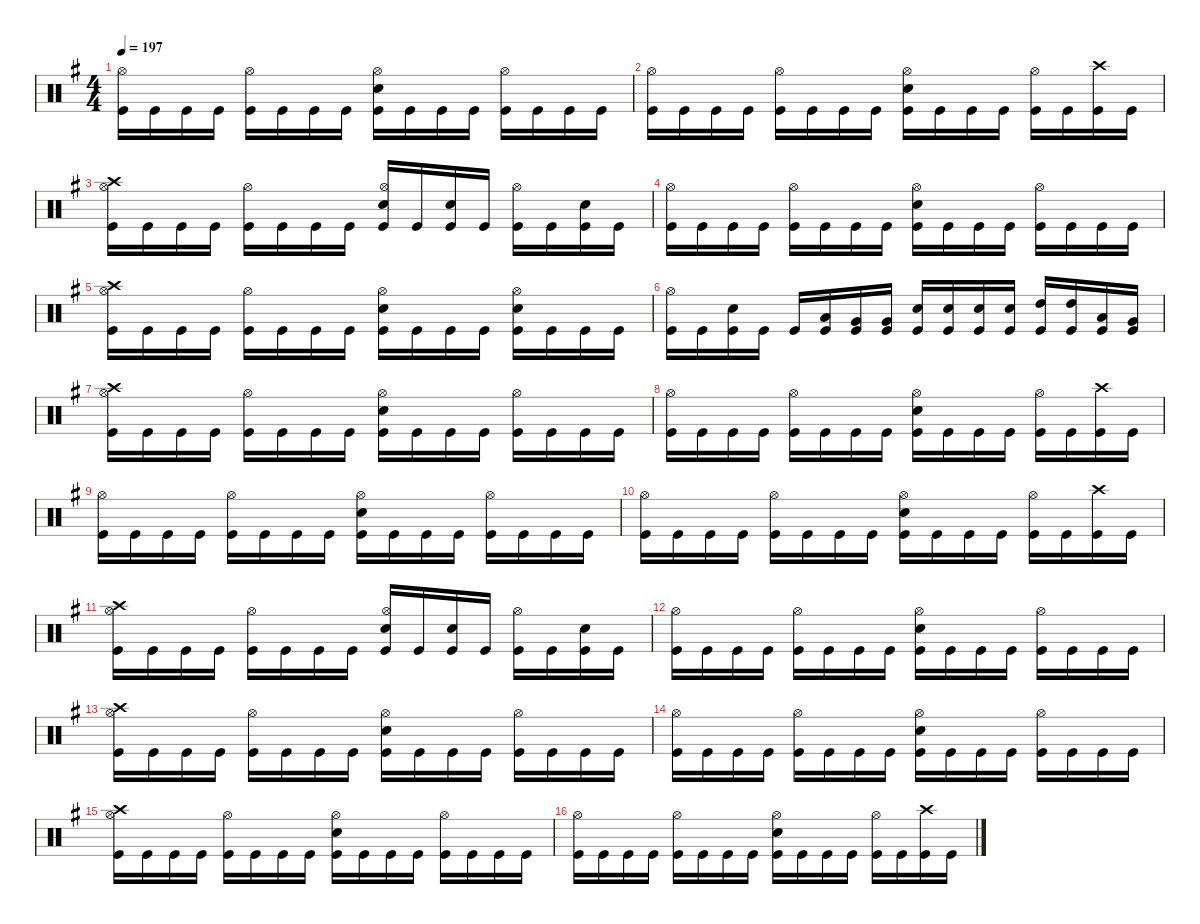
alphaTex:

\defaultSystemsLayout 4
\hideDynamics
\bracketExtendMode nobrackets
\singleTrackTrackNamePolicy hidden
\multiTrackTrackNamePolicy hidden
\firstSystemTrackNameMode fullname
\firstSystemTrackNameOrientation horizontal
\otherSystemsTrackNameOrientation horizontal
\track ("Drums" "drm.") {defaultSystemsLayout 4 instrument percussion}
\staff {score}
\articulation defaults
\ts (4 4)
\tempo 197
\clef neutral
\ks eminor
("Hi-Hat (open)"{acc forcenatural} "Kick (hit)"{acc forcenatural}).16{dy f beam Down} "Kick (hit)"{acc forcenatural}.16{beam Down} "Kick (hit)"{acc forcenatural}.16{beam Down} "Kick (hit)"{acc forcenatural}.16{beam Down} ("Hi-Hat (open)"{acc forcenatural} "Kick (hit)"{acc forcenatural}).16{beam Down} "Kick (hit)"{acc forcenatural}.16{beam Down} "Kick (hit)"{acc forcenatural}.16{beam Down} "Kick (hit)"{acc forcenatural}.16{beam Down} ("Hi-Hat (open)"{acc forcenatural} "Snare (hit) 2"{acc forcenatural} "Kick (hit)"{acc forcenatural}).16{beam Down} "Kick (hit)"{acc forcenatural}.16{beam Down} "Kick (hit)"{acc forcenatural}.16{beam Down} "Kick (hit)"{acc forcenatural}.16{beam Down} ("Hi-Hat (open)"{acc forcenatural} "Kick (hit)"{acc forcenatural}).16{beam Down} "Kick (hit)"{acc forcenatural}.16{beam Down} "Kick (hit)"{acc forcenatural}.16{beam Down} "Kick (hit)"{acc forcenatural}.16{beam Down} |
("Hi-Hat (open)"{acc forcenatural} "Kick (hit)"{acc forcenatural}).16{beam Down} "Kick (hit)"{acc forcenatural}.16{beam Down} "Kick (hit)"{acc forcenatural}.16{beam Down} "Kick (hit)"{acc forcenatural}.16{beam Down} ("Hi-Hat (open)"{acc forcenatural} "Kick (hit)"{acc forcenatural}).16{beam Down} "Kick (hit)"{acc forcenatural}.16{beam Down} "Kick (hit)"{acc forcenatural}.16{beam Down} "Kick (hit)"{acc forcenatural}.16{beam Down} ("Hi-Hat (open)"{acc forcenatural} "Snare (hit) 2"{acc forcenatural} "Kick (hit)"{acc forcenatural}).16{beam Down} "Kick (hit)"{acc forcenatural}.16{beam Down} "Kick (hit)"{acc forcenatural}.16{beam Down} "Kick (hit)"{acc forcenatural}.16{beam Down} ("Hi-Hat (open)"{acc forcenatural} "Kick (hit)"{acc forcenatural}).16{beam Down} "Kick (hit)"{acc forcenatural}.16{beam Down} ("Crash high (hit)"{acc forcenatural} "Kick (hit)"{acc forcenatural}).16{beam Down} "Kick (hit)"{acc forcenatural}.16{beam Down} |
("Crash high (hit)"{acc forcenatural} "Hi-Hat (open)"{acc forcenatural} "Kick (hit)"{acc forcenatural}).16{beam Down} "Kick (hit)"{acc forcenatural}.16{beam Down} "Kick (hit)"{acc forcenatural}.16{beam Down} "Kick (hit)"{acc forcenatural}.16{beam Down} ("Hi-Hat (open)"{acc forcenatural} "Kick (hit)"{acc forcenatural}).16{beam Down} "Kick (hit)"{acc forcenatural}.16{beam Down} "Kick (hit)"{acc forcenatural}.16{beam Down} "Kick (hit)"{acc forcenatural}.16{beam Down} ("Hi-Hat (open)"{acc forcenatural} "Snare (hit) 2"{acc forcenatural} "Kick (hit)"{acc forcenatural}).16{beam Up} "Kick (hit)"{acc forcenatural}.16{beam Up} ("Snare (hit) 2"{acc forcenatural} "Kick (hit)"{acc forcenatural}).16{beam Up} "Kick (hit)"{acc forcenatural}.16{beam Up} ("Hi-Hat (open)"{acc forcenatural} "Kick (hit)"{acc forcenatural}).16{beam Down} "Kick (hit)"{acc forcenatural}.16{beam Down} ("Snare (hit) 2"{acc forcenatural} "Kick (hit)"{acc forcenatural}).16{beam Down} "Kick (hit)"{acc forcenatural}.16{beam Down} |
("Hi-Hat (open)"{acc forcenatural} "Kick (hit)"{acc forcenatural}).16{beam Down} "Kick (hit)"{acc forcenatural}.16{beam Down} "Kick (hit)"{acc forcenatural}.16{beam Down} "Kick (hit)"{acc forcenatural}.16{beam Down} ("Hi-Hat (open)"{acc forcenatural} "Kick (hit)"{acc forcenatural}).16{beam Down} "Kick (hit)"{acc forcenatural}.16{beam Down} "Kick (hit)"{acc forcenatural}.16{beam Down} "Kick (hit)"{acc forcenatural}.16{beam Down} ("Hi-Hat (open)"{acc forcenatural} "Snare (hit) 2"{acc forcenatural} "Kick (hit)"{acc forcenatural}).16{beam Down} "Kick (hit)"{acc forcenatural}.16{beam Down} "Kick (hit)"{acc forcenatural}.16{beam Down} "Kick (hit)"{acc forcenatural}.16{beam Down} ("Hi-Hat (open)"{acc forcenatural} "Kick (hit)"{acc forcenatural}).16{beam Down} "Kick (hit)"{acc forcenatural}.16{beam Down} "Kick (hit)"{acc forcenatural}.16{beam Down} "Kick (hit)"{acc forcenatural}.16{beam Down} |
("Crash high (hit)"{acc forcenatural} "Hi-Hat (open)"{acc forcenatural} "Kick (hit)"{acc forcenatural}).16{beam Down} "Kick (hit)"{acc forcenatural}.16{beam Down} "Kick (hit)"{acc forcenatural}.16{beam Down} "Kick (hit)"{acc forcenatural}.16{beam Down} ("Hi-Hat (open)"{acc forcenatural} "Kick (hit)"{acc forcenatural}).16{beam Down} "Kick (hit)"{acc forcenatural}.16{beam Down} "Kick (hit)"{acc forcenatural}.16{beam Down} "Kick (hit)"{acc forcenatural}.16{beam Down} ("Hi-Hat (open)"{acc forcenatural} "Snare (hit) 2"{acc forcenatural} "Kick (hit)"{acc forcenatural}).16{beam Down} "Kick (hit)"{acc forcenatural}.16{beam Down} "Kick (hit)"{acc forcenatural}.16{beam Down} "Kick (hit)"{acc forcenatural}.16{beam Down} ("Hi-Hat (open)"{acc forcenatural} "Snare (hit) 2"{acc forcenatural} "Kick (hit)"{acc forcenatural}).16{beam Down} "Kick (hit)"{acc forcenatural}.16{beam Down} "Kick (hit)"{acc forcenatural}.16{beam Down} "Kick (hit)"{acc forcenatural}.16{beam Down} |
("Hi-Hat (open)"{acc forcenatural} "Kick (hit)"{acc forcenatural}).16{beam Down} "Kick (hit)"{acc forcenatural}.16{beam Down} ("Snare (hit) 2"{acc forcenatural} "Kick (hit)"{acc forcenatural}).16{beam Down} "Kick (hit)"{acc forcenatural}.16{beam Down} "Kick (hit)"{acc forcenatural}.16{beam Up} ("Low Tom (hit)"{acc forcenatural} "Kick (hit)"{acc forcenatural}).16{beam Up} ("Very Low Tom (hit)"{acc forcenatural} "Kick (hit)"{acc forcenatural}).16{beam Up} ("Very Low Tom (hit)"{acc forcenatural} "Kick (hit)"{acc forcenatural}).16{beam Up} ("Snare (hit) 2"{acc forcenatural} "Kick (hit)"{acc forcenatural}).16{beam Up} ("Snare (hit) 2"{acc forcenatural} "Kick (hit)"{acc forcenatural}).16{beam Up} ("Snare (hit) 2"{acc forcenatural} "Kick (hit)"{acc forcenatural}).16{beam Up} ("Snare (hit) 2"{acc forcenatural} "Kick (hit)"{acc forcenatural}).16{beam Up} ("High Tom (hit)"{acc forcenatural} "Kick (hit)"{acc forcenatural}).16{beam Up} ("High Tom (hit)"{acc forcenatural} "Kick (hit)"{acc forcenatural}).16{beam Up} ("Low Tom (hit)"{acc forcenatural} "Kick (hit)"{acc forcenatural}).16{beam Up} ("Very Low Tom (hit)"{acc forcenatural} "Kick (hit)"{acc forcenatural}).16{beam Up} |
("Crash high (hit)"{acc forcenatural} "Hi-Hat (open)"{acc forcenatural} "Kick (hit)"{acc forcenatural}).16{beam Down} "Kick (hit)"{acc forcenatural}.16{beam Down} "Kick (hit)"{acc forcenatural}.16{beam Down} "Kick (hit)"{acc forcenatural}.16{beam Down} ("Hi-Hat (open)"{acc forcenatural} "Kick (hit)"{acc forcenatural}).16{beam Down} "Kick (hit)"{acc forcenatural}.16{beam Down} "Kick (hit)"{acc forcenatural}.16{beam Down} "Kick (hit)"{acc forcenatural}.16{beam Down} ("Hi-Hat (open)"{acc forcenatural} "Snare (hit) 2"{acc forcenatural} "Kick (hit)"{acc forcenatural}).16{beam Down} "Kick (hit)"{acc forcenatural}.16{beam Down} "Kick (hit)"{acc forcenatural}.16{beam Down} "Kick (hit)"{acc forcenatural}.16{beam Down} ("Hi-Hat (open)"{acc forcenatural} "Kick (hit)"{acc forcenatural}).16{beam Down} "Kick (hit)"{acc forcenatural}.16{beam Down} "Kick (hit)"{acc forcenatural}.16{beam Down} "Kick (hit)"{acc forcenatural}.16{beam Down} |
("Hi-Hat (open)"{acc forcenatural} "Kick (hit)"{acc forcenatural}).16{beam Down} "Kick (hit)"{acc forcenatural}.16{beam Down} "Kick (hit)"{acc forcenatural}.16{beam Down} "Kick (hit)"{acc forcenatural}.16{beam Down} ("Hi-Hat (open)"{acc forcenatural} "Kick (hit)"{acc forcenatural}).16{beam Down} "Kick (hit)"{acc forcenatural}.16{beam Down} "Kick (hit)"{acc forcenatural}.16{beam Down} "Kick (hit)"{acc forcenatural}.16{beam Down} ("Hi-Hat (open)"{acc forcenatural} "Snare (hit) 2"{acc forcenatural} "Kick (hit)"{acc forcenatural}).16{beam Down} "Kick (hit)"{acc forcenatural}.16{beam Down} "Kick (hit)"{acc forcenatural}.16{beam Down} "Kick (hit)"{acc forcenatural}.16{beam Down} ("Hi-Hat (open)"{acc forcenatural} "Kick (hit)"{acc forcenatural}).16{beam Down} "Kick (hit)"{acc forcenatural}.16{beam Down} ("Crash high (hit)"{acc forcenatural} "Kick (hit)"{acc forcenatural}).16{beam Down} "Kick (hit)"{acc forcenatural}.16{beam Down} |
("Hi-Hat (open)"{acc forcenatural} "Kick (hit)"{acc forcenatural}).16{beam Down} "Kick (hit)"{acc forcenatural}.16{beam Down} "Kick (hit)"{acc forcenatural}.16{beam Down} "Kick (hit)"{acc forcenatural}.16{beam Down} ("Hi-Hat (open)"{acc forcenatural} "Kick (hit)"{acc forcenatural}).16{beam Down} "Kick (hit)"{acc forcenatural}.16{beam Down} "Kick (hit)"{acc forcenatural}.16{beam Down} "Kick (hit)"{acc forcenatural}.16{beam Down} ("Hi-Hat (open)"{acc forcenatural} "Snare (hit) 2"{acc forcenatural} "Kick (hit)"{acc forcenatural}).16{beam Down} "Kick (hit)"{acc forcenatural}.16{beam Down} "Kick (hit)"{acc forcenatural}.16{beam Down} "Kick (hit)"{acc forcenatural}.16{beam Down} ("Hi-Hat (open)"{acc forcenatural} "Kick (hit)"{acc forcenatural}).16{beam Down} "Kick (hit)"{acc forcenatural}.16{beam Down} "Kick (hit)"{acc forcenatural}.16{beam Down} "Kick (hit)"{acc forcenatural}.16{beam Down} |
("Hi-Hat (open)"{acc forcenatural} "Kick (hit)"{acc forcenatural}).16{beam Down} "Kick (hit)"{acc forcenatural}.16{beam Down} "Kick (hit)"{acc forcenatural}.16{beam Down} "Kick (hit)"{acc forcenatural}.16{beam Down} ("Hi-Hat (open)"{acc forcenatural} "Kick (hit)"{acc forcenatural}).16{beam Down} "Kick (hit)"{acc forcenatural}.16{beam Down} "Kick (hit)"{acc forcenatural}.16{beam Down} "Kick (hit)"{acc forcenatural}.16{beam Down} ("Hi-Hat (open)"{acc forcenatural} "Snare (hit) 2"{acc forcenatural} "Kick (hit)"{acc forcenatural}).16{beam Down} "Kick (hit)"{acc forcenatural}.16{beam Down} "Kick (hit)"{acc forcenatural}.16{beam Down} "Kick (hit)"{acc forcenatural}.16{beam Down} ("Hi-Hat (open)"{acc forcenatural} "Kick (hit)"{acc forcenatural}).16{beam Down} "Kick (hit)"{acc forcenatural}.16{beam Down} ("Crash high (hit)"{acc forcenatural} "Kick (hit)"{acc forcenatural}).16{beam Down} "Kick (hit)"{acc forcenatural}.16{beam Down} |
("Crash high (hit)"{acc forcenatural} "Hi-Hat (open)"{acc forcenatural} "Kick (hit)"{acc forcenatural}).16{beam Down} "Kick (hit)"{acc forcenatural}.16{beam Down} "Kick (hit)"{acc forcenatural}.16{beam Down} "Kick (hit)"{acc forcenatural}.16{beam Down} ("Hi-Hat (open)"{acc forcenatural} "Kick (hit)"{acc forcenatural}).16{beam Down} "Kick (hit)"{acc forcenatural}.16{beam Down} "Kick (hit)"{acc forcenatural}.16{beam Down} "Kick (hit)"{acc forcenatural}.16{beam Down} ("Hi-Hat (open)"{acc forcenatural} "Snare (hit) 2"{acc forcenatural} "Kick (hit)"{acc forcenatural}).16{beam Up} "Kick (hit)"{acc forcenatural}.16{beam Up} ("Snare (hit) 2"{acc forcenatural} "Kick (hit)"{acc forcenatural}).16{beam Up} "Kick (hit)"{acc forcenatural}.16{beam Up} ("Hi-Hat (open)"{acc forcenatural} "Kick (hit)"{acc forcenatural}).16{beam Down} "Kick (hit)"{acc forcenatural}.16{beam Down} ("Snare (hit) 2"{acc forcenatural} "Kick (hit)"{acc forcenatural}).16{beam Down} "Kick (hit)"{acc forcenatural}.16{beam Down} |
("Hi-Hat (open)"{acc forcenatural} "Kick (hit)"{acc forcenatural}).16{beam Down} "Kick (hit)"{acc forcenatural}.16{beam Down} "Kick (hit)"{acc forcenatural}.16{beam Down} "Kick (hit)"{acc forcenatural}.16{beam Down} ("Hi-Hat (open)"{acc forcenatural} "Kick (hit)"{acc forcenatural}).16{beam Down} "Kick (hit)"{acc forcenatural}.16{beam Down} "Kick (hit)"{acc forcenatural}.16{beam Down} "Kick (hit)"{acc forcenatural}.16{beam Down} ("Hi-Hat (open)"{acc forcenatural} "Snare (hit) 2"{acc forcenatural} "Kick (hit)"{acc forcenatural}).16{beam Down} "Kick (hit)"{acc forcenatural}.16{beam Down} "Kick (hit)"{acc forcenatural}.16{beam Down} "Kick (hit)"{acc forcenatural}.16{beam Down} ("Hi-Hat (open)"{acc forcenatural} "Kick (hit)"{acc forcenatural}).16{beam Down} "Kick (hit)"{acc forcenatural}.16{beam Down} "Kick (hit)"{acc forcenatural}.16{beam Down} "Kick (hit)"{acc forcenatural}.16{beam Down} |
("Crash high (hit)"{acc forcenatural} "Hi-Hat (open)"{acc forcenatural} "Kick (hit)"{acc forcenatural}).16{beam Down} "Kick (hit)"{acc forcenatural}.16{beam Down} "Kick (hit)"{acc forcenatural}.16{beam Down} "Kick (hit)"{acc forcenatural}.16{beam Down} ("Hi-Hat (open)"{acc forcenatural} "Kick (hit)"{acc forcenatural}).16{beam Down} "Kick (hit)"{acc forcenatural}.16{beam Down} "Kick (hit)"{acc forcenatural}.16{beam Down} "Kick (hit)"{acc forcenatural}.16{beam Down} ("Hi-Hat (open)"{acc forcenatural} "Snare (hit) 2"{acc forcenatural} "Kick (hit)"{acc forcenatural}).16{beam Down} "Kick (hit)"{acc forcenatural}.16{beam Down} "Kick (hit)"{acc forcenatural}.16{beam Down} "Kick (hit)"{acc forcenatural}.16{beam Down} ("Hi-Hat (open)"{acc forcenatural} "Kick (hit)"{acc forcenatural}).16{beam Down} "Kick (hit)"{acc forcenatural}.16{beam Down} "Kick (hit)"{acc forcenatural}.16{beam Down} "Kick (hit)"{acc forcenatural}.16{beam Down} |
("Hi-Hat (open)"{acc forcenatural} "Kick (hit)"{acc forcenatural}).16{beam Down} "Kick (hit)"{acc forcenatural}.16{beam Down} "Kick (hit)"{acc forcenatural}.16{beam Down} "Kick (hit)"{acc forcenatural}.16{beam Down} ("Hi-Hat (open)"{acc forcenatural} "Kick (hit)"{acc forcenatural}).16{beam Down} "Kick (hit)"{acc forcenatural}.16{beam Down} "Kick (hit)"{acc forcenatural}.16{beam Down} "Kick (hit)"{acc forcenatural}.16{beam Down} ("Hi-Hat (open)"{acc forcenatural} "Snare (hit) 2"{acc forcenatural} "Kick (hit)"{acc forcenatural}).16{beam Down} "Kick (hit)"{acc forcenatural}.16{beam Down} "Kick (hit)"{acc forcenatural}.16{beam Down} "Kick (hit)"{acc forcenatural}.16{beam Down} ("Hi-Hat (open)"{acc forcenatural} "Kick (hit)"{acc forcenatural}).16{beam Down} "Kick (hit)"{acc forcenatural}.16{beam Down} "Kick (hit)"{acc forcenatural}.16{beam Down} "Kick (hit)"{acc forcenatural}.16{beam Down} |
("Crash high (hit)"{acc forcenatural} "Hi-Hat (open)"{acc forcenatural} "Kick (hit)"{acc forcenatural}).16{beam Down} "Kick (hit)"{acc forcenatural}.16{beam Down} "Kick (hit)"{acc forcenatural}.16{beam Down} "Kick (hit)"{acc forcenatural}.16{beam Down} ("Hi-Hat (open)"{acc forcenatural} "Kick (hit)"{acc forcenatural}).16{beam Down} "Kick (hit)"{acc forcenatural}.16{beam Down} "Kick (hit)"{acc forcenatural}.16{beam Down} "Kick (hit)"{acc forcenatural}.16{beam Down} ("Hi-Hat (open)"{acc forcenatural} "Snare (hit) 2"{acc forcenatural} "Kick (hit)"{acc forcenatural}).16{beam Down} "Kick (hit)"{acc forcenatural}.16{beam Down} "Kick (hit)"{acc forcenatural}.16{beam Down} "Kick (hit)"{acc forcenatural}.16{beam Down} ("Hi-Hat (open)"{acc forcenatural} "Kick (hit)"{acc forcenatural}).16{beam Down} "Kick (hit)"{acc forcenatural}.16{beam Down} "Kick (hit)"{acc forcenatural}.16{beam Down} "Kick (hit)"{acc forcenatural}.16{beam Down} |
("Hi-Hat (open)"{acc forcenatural} "Kick (hit)"{acc forcenatural}).16{beam Down} "Kick (hit)"{acc forcenatural}.16{beam Down} "Kick (hit)"{acc forcenatural}.16{beam Down} "Kick (hit)"{acc forcenatural}.16{beam Down} ("Hi-Hat (open)"{acc forcenatural} "Kick (hit)"{acc forcenatural}).16{beam Down} "Kick (hit)"{acc forcenatural}.16{beam Down} "Kick (hit)"{acc forcenatural}.16{beam Down} "Kick (hit)"{acc forcenatural}.16{beam Down} ("Hi-Hat (open)"{acc forcenatural} "Snare (hit) 2"{acc forcenatural} "Kick (hit)"{acc forcenatural}).16{beam Down} "Kick (hit)"{acc forcenatural}.16{beam Down} "Kick (hit)"{acc forcenatural}.16{beam Down} "Kick (hit)"{acc forcenatural}.16{beam Down} ("Hi-Hat (open)"{acc forcenatural} "Kick (hit)"{acc forcenatural}).16{beam Down} "Kick (hit)"{acc forcenatural}.16{beam Down} ("Crash high (hit)"{acc forcenatural} "Kick (hit)"{acc forcenatural}).16{beam Down} "Kick (hit)"{acc forcenatural}.16{beam Down}
